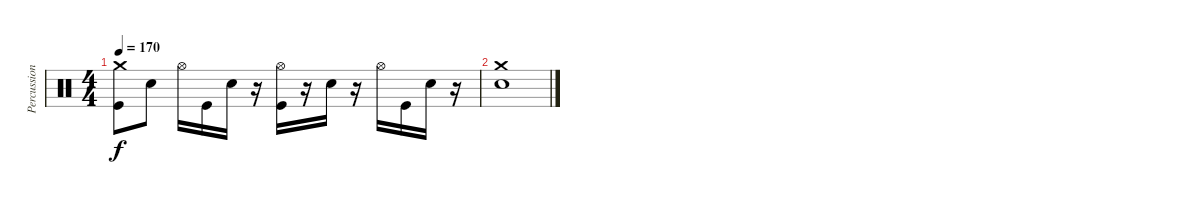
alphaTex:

\track ("Percussion [Ron]" "Percussion") {instrument percussion}
\staff {score}
\articulation defaults
\ts (4 4)
\tempo 170
\clef neutral
\ks c
("Kick (hit)" "Crash medium (hit)").8{dy f} "Snare (hit) 2".8 "Hi-Hat (open)".16 "Kick (hit)".16 "Snare (hit) 2".16 r.16 ("Kick (hit)" "Hi-Hat (open)").16 r.16 "Snare (hit) 2".16 r.16 "Hi-Hat (open)".16 "Kick (hit)".16 "Snare (hit) 2".16 r.16 |
("Crash medium (hit)" "Snare (hit) 2").1
